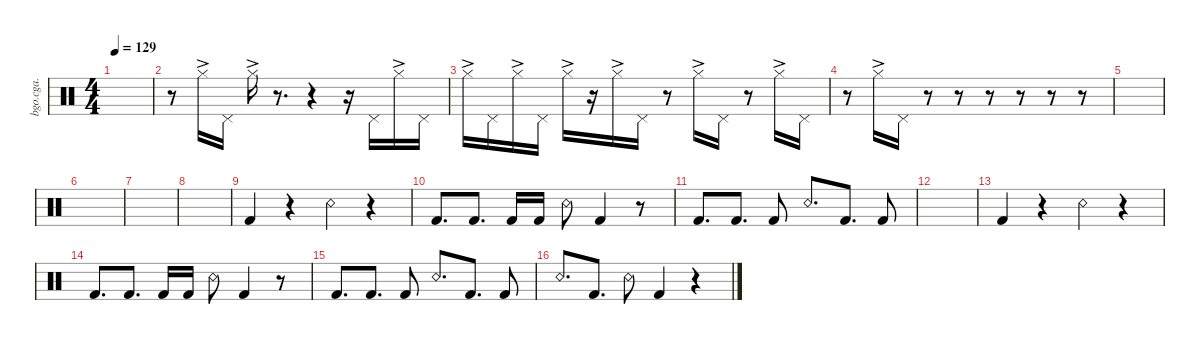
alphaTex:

\defaultSystemsLayout 4
\hideDynamics
\bracketExtendMode nobrackets
\otherSystemsTrackNameOrientation horizontal
\track ("Heiko's percussion" "bgo.cga.") {instrument percussion}
\staff {score}
\articulation defaults
\ts (4 4)
\tempo 129
\clef neutral
\ks c
|
r.8 "Hi-Hat (closed)"{ac}.16 "Pedal Hi-Hat (hit)".16 "Hi-Hat (closed)"{ac}.16 r.8{d} r.4 r.16 "Pedal Hi-Hat (hit)".16 "Hi-Hat (closed)"{ac}.16 "Pedal Hi-Hat (hit)".16 |
"Hi-Hat (closed)"{ac}.16 "Pedal Hi-Hat (hit)".16 "Hi-Hat (closed)"{ac}.16 "Pedal Hi-Hat (hit)".16 "Hi-Hat (closed)"{ac}.16 r.16 "Hi-Hat (closed)"{ac}.16 "Pedal Hi-Hat (hit)".16 r.8 "Hi-Hat (closed)"{ac}.16 "Pedal Hi-Hat (hit)".16 r.8 "Hi-Hat (closed)"{ac}.16 "Pedal Hi-Hat (hit)".16 |
r.8 "Hi-Hat (closed)"{ac}.16 "Pedal Hi-Hat (hit)".16 r.8 r.8 r.8 r.8 r.8 r.8 |
|
|
|
|
"Kick (hit) 2".4{dy mf} r.4 "Snare (rim shot)".4 r.4 |
"Kick (hit) 2".8{d dy mp} "Kick (hit) 2".8{d} "Kick (hit) 2".16 "Kick (hit) 2".16 "Snare (rim shot)".8 "Kick (hit) 2".4 r.8 |
"Kick (hit) 2".8{d dy mf} "Kick (hit) 2".8{d dy p} "Kick (hit) 2".8{dy mf} "Snare (rim shot)".8{d} "Kick (hit) 2".8{d} "Kick (hit) 2".8{dy p} |
|
"Kick (hit) 2".4{dy mf} r.4 "Snare (rim shot)".4 r.4 |
"Kick (hit) 2".8{d dy mp} "Kick (hit) 2".8{d} "Kick (hit) 2".16 "Kick (hit) 2".16 "Snare (rim shot)".8 "Kick (hit) 2".4 r.8 |
"Kick (hit) 2".8{d} "Kick (hit) 2".8{d} "Kick (hit) 2".8 "Snare (rim shot)".8{d} "Kick (hit) 2".8{d} "Kick (hit) 2".8 |
"Snare (rim shot)".8{d} "Kick (hit) 2".8{d} "Snare (rim shot)".8 "Kick (hit) 2".4 r.4
